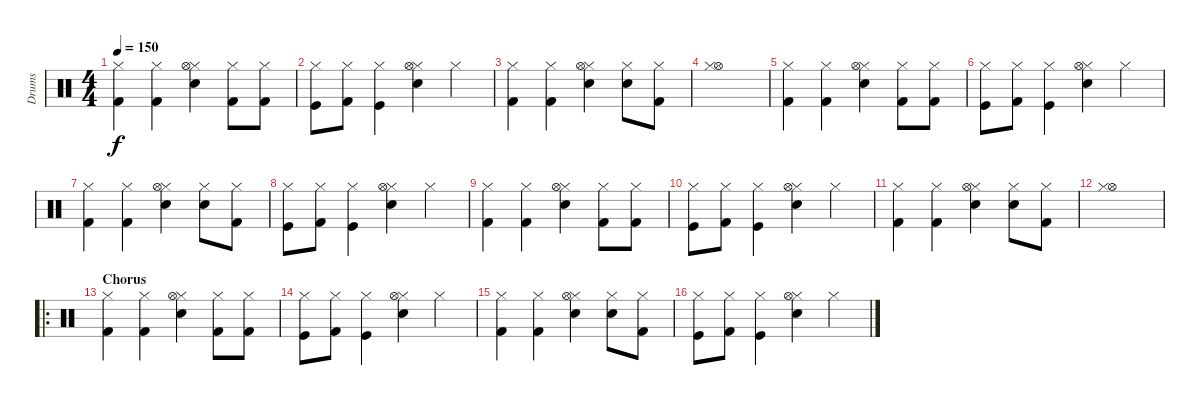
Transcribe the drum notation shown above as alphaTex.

\track ("Drums" "Drums") {instrument percussion}
\staff {score}
\articulation defaults
\ts (4 4)
\tempo 150
\clef neutral
\ks c
("Kick (hit) 2" "Hi-Hat (closed)").4{dy f} ("Kick (hit) 2" "Hi-Hat (closed)").4 ("Snare (hit) 2" "Hi-Hat (closed)" "Hi-Hat (open)").4 ("Kick (hit) 2" "Hi-Hat (closed)").8 ("Kick (hit) 2" "Hi-Hat (closed)").8 |
("Kick (hit)" "Hi-Hat (closed)").8 ("Kick (hit) 2" "Hi-Hat (closed)").8 ("Kick (hit)" "Hi-Hat (closed)").4 ("Snare (hit) 2" "Hi-Hat (closed)" "Hi-Hat (open)").4 "Hi-Hat (closed)".4 |
("Kick (hit) 2" "Hi-Hat (closed)").4 ("Kick (hit) 2" "Hi-Hat (closed)").4 ("Snare (hit) 2" "Hi-Hat (closed)" "Hi-Hat (open)").4 ("Snare (hit) 2" "Hi-Hat (closed)").8 ("Kick (hit) 2" "Hi-Hat (closed)").8 |
("Hi-Hat (open)" "Hi-Hat (closed)").1 |
("Kick (hit) 2" "Hi-Hat (closed)").4 ("Kick (hit) 2" "Hi-Hat (closed)").4 ("Snare (hit) 2" "Hi-Hat (closed)" "Hi-Hat (open)").4 ("Kick (hit) 2" "Hi-Hat (closed)").8 ("Kick (hit) 2" "Hi-Hat (closed)").8 |
("Kick (hit)" "Hi-Hat (closed)").8 ("Kick (hit) 2" "Hi-Hat (closed)").8 ("Kick (hit)" "Hi-Hat (closed)").4 ("Snare (hit) 2" "Hi-Hat (closed)" "Hi-Hat (open)").4 "Hi-Hat (closed)".4 |
("Kick (hit) 2" "Hi-Hat (closed)").4 ("Kick (hit) 2" "Hi-Hat (closed)").4 ("Snare (hit) 2" "Hi-Hat (closed)" "Hi-Hat (open)").4 ("Snare (hit) 2" "Hi-Hat (closed)").8 ("Kick (hit) 2" "Hi-Hat (closed)").8 |
("Kick (hit)" "Hi-Hat (closed)").8 ("Kick (hit) 2" "Hi-Hat (closed)").8 ("Kick (hit)" "Hi-Hat (closed)").4 ("Snare (hit) 2" "Hi-Hat (closed)" "Hi-Hat (open)").4 "Hi-Hat (closed)".4 |
("Kick (hit) 2" "Hi-Hat (closed)").4 ("Kick (hit) 2" "Hi-Hat (closed)").4 ("Snare (hit) 2" "Hi-Hat (closed)" "Hi-Hat (open)").4 ("Kick (hit) 2" "Hi-Hat (closed)").8 ("Kick (hit) 2" "Hi-Hat (closed)").8 |
("Kick (hit)" "Hi-Hat (closed)").8 ("Kick (hit) 2" "Hi-Hat (closed)").8 ("Kick (hit)" "Hi-Hat (closed)").4 ("Snare (hit) 2" "Hi-Hat (closed)" "Hi-Hat (open)").4 "Hi-Hat (closed)".4 |
("Kick (hit) 2" "Hi-Hat (closed)").4 ("Kick (hit) 2" "Hi-Hat (closed)").4 ("Snare (hit) 2" "Hi-Hat (closed)" "Hi-Hat (open)").4 ("Snare (hit) 2" "Hi-Hat (closed)").8 ("Kick (hit) 2" "Hi-Hat (closed)").8 |
("Hi-Hat (open)" "Hi-Hat (closed)").1 |
\ro
\section ("" "Chorus")
("Kick (hit) 2" "Hi-Hat (closed)").4 ("Kick (hit) 2" "Hi-Hat (closed)").4 ("Snare (hit) 2" "Hi-Hat (closed)" "Hi-Hat (open)").4 ("Kick (hit) 2" "Hi-Hat (closed)").8 ("Kick (hit) 2" "Hi-Hat (closed)").8 |
("Kick (hit)" "Hi-Hat (closed)").8 ("Kick (hit) 2" "Hi-Hat (closed)").8 ("Kick (hit)" "Hi-Hat (closed)").4 ("Snare (hit) 2" "Hi-Hat (closed)" "Hi-Hat (open)").4 "Hi-Hat (closed)".4 |
("Kick (hit) 2" "Hi-Hat (closed)").4 ("Kick (hit) 2" "Hi-Hat (closed)").4 ("Snare (hit) 2" "Hi-Hat (closed)" "Hi-Hat (open)").4 ("Snare (hit) 2" "Hi-Hat (closed)").8 ("Kick (hit) 2" "Hi-Hat (closed)").8 |
("Kick (hit)" "Hi-Hat (closed)").8 ("Kick (hit) 2" "Hi-Hat (closed)").8 ("Kick (hit)" "Hi-Hat (closed)").4 ("Snare (hit) 2" "Hi-Hat (closed)" "Hi-Hat (open)").4 "Hi-Hat (closed)".4
